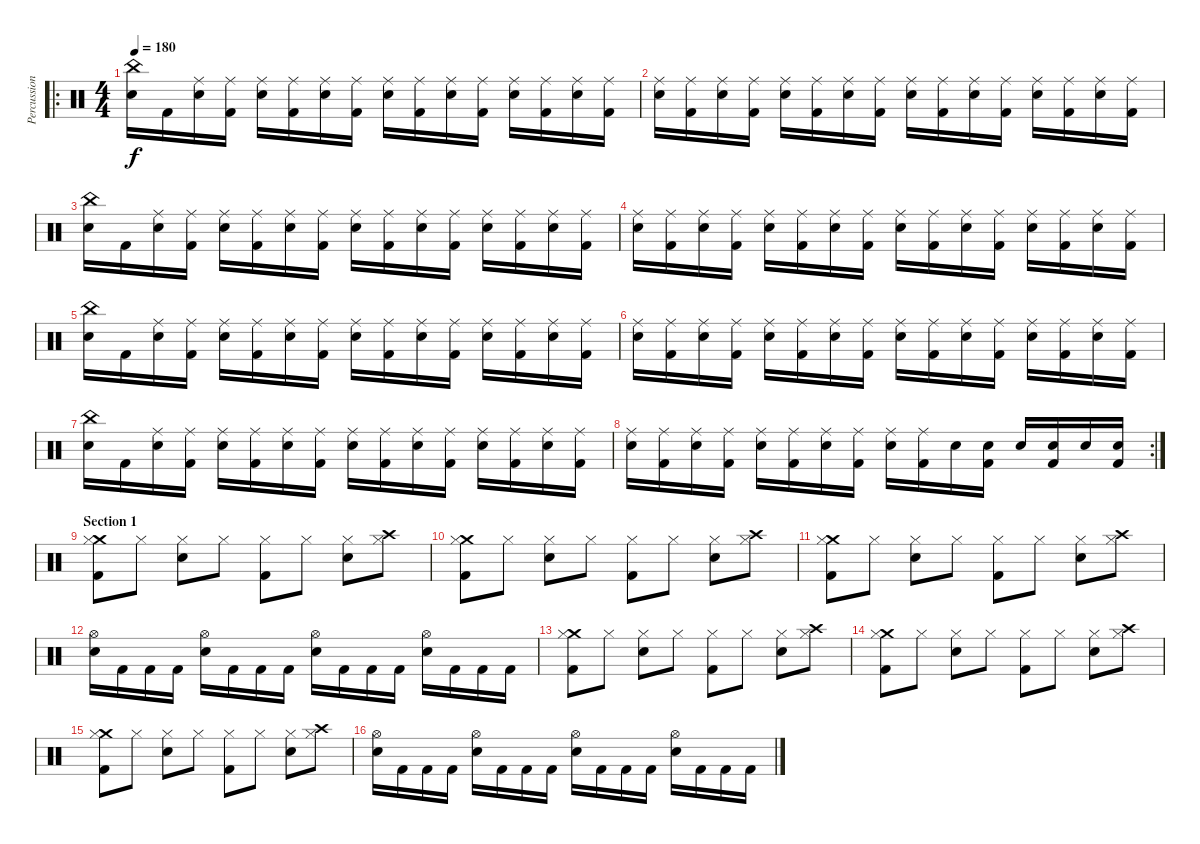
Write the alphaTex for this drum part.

\track ("Percussion" "Percussion") {instrument percussion}
\staff {score}
\articulation defaults
\ro
\ts (4 4)
\tempo 180
\clef neutral
\ks c
("China (hit)" "Snare (hit) 2").16{dy f} "Kick (hit) 2".16 ("Ride (middle)" "Snare (hit) 2").16 ("Ride (middle)" "Kick (hit) 2").16 ("Ride (middle)" "Snare (hit) 2").16 ("Ride (middle)" "Kick (hit) 2").16 ("Ride (middle)" "Snare (hit) 2").16 ("Ride (middle)" "Kick (hit) 2").16 ("Ride (middle)" "Snare (hit) 2").16 ("Ride (middle)" "Kick (hit) 2").16 ("Ride (middle)" "Snare (hit) 2").16 ("Ride (middle)" "Kick (hit) 2").16 ("Ride (middle)" "Snare (hit) 2").16 ("Ride (middle)" "Kick (hit) 2").16 ("Ride (middle)" "Snare (hit) 2").16 ("Ride (middle)" "Kick (hit) 2").16 |
("Ride (middle)" "Snare (hit) 2").16 ("Ride (middle)" "Kick (hit) 2").16 ("Ride (middle)" "Snare (hit) 2").16 ("Ride (middle)" "Kick (hit) 2").16 ("Ride (middle)" "Snare (hit) 2").16 ("Ride (middle)" "Kick (hit) 2").16 ("Ride (middle)" "Snare (hit) 2").16 ("Ride (middle)" "Kick (hit) 2").16 ("Ride (middle)" "Snare (hit) 2").16 ("Ride (middle)" "Kick (hit) 2").16 ("Ride (middle)" "Snare (hit) 2").16 ("Ride (middle)" "Kick (hit) 2").16 ("Ride (middle)" "Snare (hit) 2").16 ("Ride (middle)" "Kick (hit) 2").16 ("Ride (middle)" "Snare (hit) 2").16 ("Ride (middle)" "Kick (hit) 2").16 |
("China (hit)" "Snare (hit) 2").16 "Kick (hit) 2".16 ("Ride (middle)" "Snare (hit) 2").16 ("Ride (middle)" "Kick (hit) 2").16 ("Ride (middle)" "Snare (hit) 2").16 ("Ride (middle)" "Kick (hit) 2").16 ("Ride (middle)" "Snare (hit) 2").16 ("Ride (middle)" "Kick (hit) 2").16 ("Ride (middle)" "Snare (hit) 2").16 ("Ride (middle)" "Kick (hit) 2").16 ("Ride (middle)" "Snare (hit) 2").16 ("Ride (middle)" "Kick (hit) 2").16 ("Ride (middle)" "Snare (hit) 2").16 ("Ride (middle)" "Kick (hit) 2").16 ("Ride (middle)" "Snare (hit) 2").16 ("Ride (middle)" "Kick (hit) 2").16 |
("Ride (middle)" "Snare (hit) 2").16 ("Ride (middle)" "Kick (hit) 2").16 ("Ride (middle)" "Snare (hit) 2").16 ("Ride (middle)" "Kick (hit) 2").16 ("Ride (middle)" "Snare (hit) 2").16 ("Ride (middle)" "Kick (hit) 2").16 ("Ride (middle)" "Snare (hit) 2").16 ("Ride (middle)" "Kick (hit) 2").16 ("Ride (middle)" "Snare (hit) 2").16 ("Ride (middle)" "Kick (hit) 2").16 ("Ride (middle)" "Snare (hit) 2").16 ("Ride (middle)" "Kick (hit) 2").16 ("Ride (middle)" "Snare (hit) 2").16 ("Ride (middle)" "Kick (hit) 2").16 ("Ride (middle)" "Snare (hit) 2").16 ("Ride (middle)" "Kick (hit) 2").16 |
("China (hit)" "Snare (hit) 2").16 "Kick (hit) 2".16 ("Ride (middle)" "Snare (hit) 2").16 ("Ride (middle)" "Kick (hit) 2").16 ("Ride (middle)" "Snare (hit) 2").16 ("Ride (middle)" "Kick (hit) 2").16 ("Ride (middle)" "Snare (hit) 2").16 ("Ride (middle)" "Kick (hit) 2").16 ("Ride (middle)" "Snare (hit) 2").16 ("Ride (middle)" "Kick (hit) 2").16 ("Ride (middle)" "Snare (hit) 2").16 ("Ride (middle)" "Kick (hit) 2").16 ("Ride (middle)" "Snare (hit) 2").16 ("Ride (middle)" "Kick (hit) 2").16 ("Ride (middle)" "Snare (hit) 2").16 ("Ride (middle)" "Kick (hit) 2").16 |
("Ride (middle)" "Snare (hit) 2").16 ("Ride (middle)" "Kick (hit) 2").16 ("Ride (middle)" "Snare (hit) 2").16 ("Ride (middle)" "Kick (hit) 2").16 ("Ride (middle)" "Snare (hit) 2").16 ("Ride (middle)" "Kick (hit) 2").16 ("Ride (middle)" "Snare (hit) 2").16 ("Ride (middle)" "Kick (hit) 2").16 ("Ride (middle)" "Snare (hit) 2").16 ("Ride (middle)" "Kick (hit) 2").16 ("Ride (middle)" "Snare (hit) 2").16 ("Ride (middle)" "Kick (hit) 2").16 ("Ride (middle)" "Snare (hit) 2").16 ("Ride (middle)" "Kick (hit) 2").16 ("Ride (middle)" "Snare (hit) 2").16 ("Ride (middle)" "Kick (hit) 2").16 |
("China (hit)" "Snare (hit) 2").16 "Kick (hit) 2".16 ("Ride (middle)" "Snare (hit) 2").16 ("Ride (middle)" "Kick (hit) 2").16 ("Ride (middle)" "Snare (hit) 2").16 ("Ride (middle)" "Kick (hit) 2").16 ("Ride (middle)" "Snare (hit) 2").16 ("Ride (middle)" "Kick (hit) 2").16 ("Ride (middle)" "Snare (hit) 2").16 ("Ride (middle)" "Kick (hit) 2").16 ("Ride (middle)" "Snare (hit) 2").16 ("Ride (middle)" "Kick (hit) 2").16 ("Ride (middle)" "Snare (hit) 2").16 ("Ride (middle)" "Kick (hit) 2").16 ("Ride (middle)" "Snare (hit) 2").16 ("Ride (middle)" "Kick (hit) 2").16 |
\rc 2
("Ride (middle)" "Snare (hit) 2").16 ("Ride (middle)" "Kick (hit) 2").16 ("Ride (middle)" "Snare (hit) 2").16 ("Ride (middle)" "Kick (hit) 2").16 ("Ride (middle)" "Snare (hit) 2").16 ("Ride (middle)" "Kick (hit) 2").16 ("Ride (middle)" "Snare (hit) 2").16 ("Ride (middle)" "Kick (hit) 2").16 ("Ride (middle)" "Snare (hit) 2").16 ("Ride (middle)" "Kick (hit) 2").16 "Electric Snare (hit)".16 ("Electric Snare (hit)" "Kick (hit) 2").16 "Electric Snare (hit)".16 ("Electric Snare (hit)" "Kick (hit) 2").16 "Electric Snare (hit)".16 ("Electric Snare (hit)" "Kick (hit) 2").16 |
\section ("" "Section 1")
("Crash medium (hit)" "Kick (hit) 2" "Hi-Hat (closed)").8 "Hi-Hat (closed)".8 ("Snare (hit) 2" "Hi-Hat (closed)").8 "Hi-Hat (closed)".8 ("Kick (hit) 2" "Hi-Hat (closed)").8 "Hi-Hat (closed)".8 ("Snare (hit) 2" "Hi-Hat (closed)").8 ("Crash high (hit)" "Hi-Hat (closed)").8 |
("Crash medium (hit)" "Kick (hit) 2" "Hi-Hat (closed)").8 "Hi-Hat (closed)".8 ("Snare (hit) 2" "Hi-Hat (closed)").8 "Hi-Hat (closed)".8 ("Kick (hit) 2" "Hi-Hat (closed)").8 "Hi-Hat (closed)".8 ("Snare (hit) 2" "Hi-Hat (closed)").8 ("Crash high (hit)" "Hi-Hat (closed)").8 |
("Crash medium (hit)" "Kick (hit) 2" "Hi-Hat (closed)").8 "Hi-Hat (closed)".8 ("Snare (hit) 2" "Hi-Hat (closed)").8 "Hi-Hat (closed)".8 ("Kick (hit) 2" "Hi-Hat (closed)").8 "Hi-Hat (closed)".8 ("Snare (hit) 2" "Hi-Hat (closed)").8 ("Crash high (hit)" "Hi-Hat (closed)").8 |
("Hi-Hat (open)" "Snare (hit) 2").16 "Kick (hit) 2".16 "Kick (hit) 2".16 "Kick (hit) 2".16 ("Hi-Hat (open)" "Snare (hit) 2").16 "Kick (hit) 2".16 "Kick (hit) 2".16 "Kick (hit) 2".16 ("Hi-Hat (open)" "Snare (hit) 2").16 "Kick (hit) 2".16 "Kick (hit) 2".16 "Kick (hit) 2".16 ("Hi-Hat (open)" "Snare (hit) 2").16 "Kick (hit) 2".16 "Kick (hit) 2".16 "Kick (hit) 2".16 |
("Crash medium (hit)" "Kick (hit) 2" "Hi-Hat (closed)").8 "Hi-Hat (closed)".8 ("Snare (hit) 2" "Hi-Hat (closed)").8 "Hi-Hat (closed)".8 ("Kick (hit) 2" "Hi-Hat (closed)").8 "Hi-Hat (closed)".8 ("Snare (hit) 2" "Hi-Hat (closed)").8 ("Crash high (hit)" "Hi-Hat (closed)").8 |
("Crash medium (hit)" "Kick (hit) 2" "Hi-Hat (closed)").8 "Hi-Hat (closed)".8 ("Snare (hit) 2" "Hi-Hat (closed)").8 "Hi-Hat (closed)".8 ("Kick (hit) 2" "Hi-Hat (closed)").8 "Hi-Hat (closed)".8 ("Snare (hit) 2" "Hi-Hat (closed)").8 ("Crash high (hit)" "Hi-Hat (closed)").8 |
("Crash medium (hit)" "Kick (hit) 2" "Hi-Hat (closed)").8 "Hi-Hat (closed)".8 ("Snare (hit) 2" "Hi-Hat (closed)").8 "Hi-Hat (closed)".8 ("Kick (hit) 2" "Hi-Hat (closed)").8 "Hi-Hat (closed)".8 ("Snare (hit) 2" "Hi-Hat (closed)").8 ("Crash high (hit)" "Hi-Hat (closed)").8 |
("Hi-Hat (open)" "Snare (hit) 2").16 "Kick (hit) 2".16 "Kick (hit) 2".16 "Kick (hit) 2".16 ("Hi-Hat (open)" "Snare (hit) 2").16 "Kick (hit) 2".16 "Kick (hit) 2".16 "Kick (hit) 2".16 ("Hi-Hat (open)" "Snare (hit) 2").16 "Kick (hit) 2".16 "Kick (hit) 2".16 "Kick (hit) 2".16 ("Hi-Hat (open)" "Snare (hit) 2").16 "Kick (hit) 2".16 "Kick (hit) 2".16 "Kick (hit) 2".16
